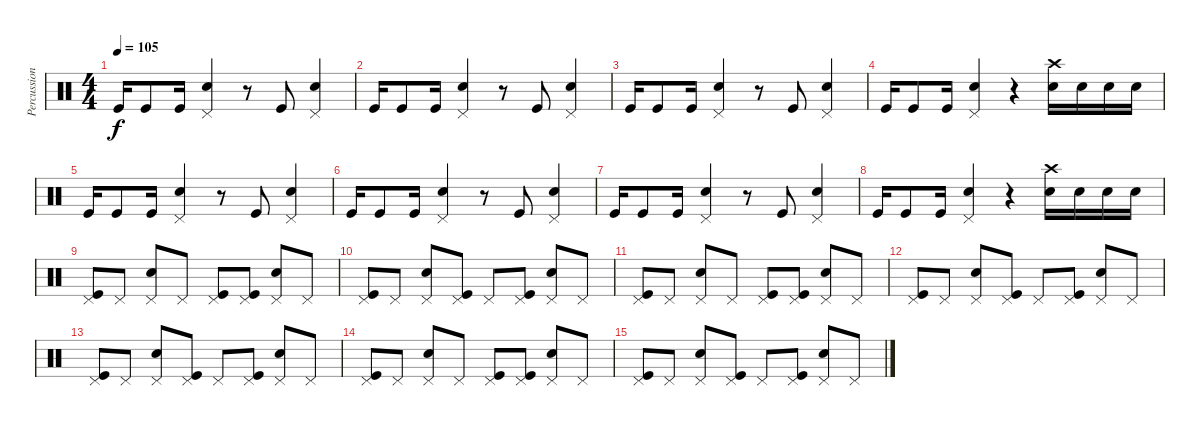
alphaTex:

\track ("Percussion" "Percussion") {instrument percussion bank 255}
\staff {score}
\articulation defaults
\ts (4 4)
\tempo 105
\clef neutral
\ks c "Kick (hit)".16{dy f} "Kick (hit)".8 "Kick (hit)".16
("Pedal Hi-Hat (hit)" "Snare (hit) 2").4 r.8 "Kick (hit)".8 ("Pedal Hi-Hat (hit)" "Snare (hit) 2").4 |
"Kick (hit)".16 "Kick (hit)".8 "Kick (hit)".16 ("Pedal Hi-Hat (hit)" "Snare (hit) 2").4 r.8 "Kick (hit)".8 ("Pedal Hi-Hat (hit)" "Snare (hit) 2").4 |
"Kick (hit)".16 "Kick (hit)".8 "Kick (hit)".16 ("Pedal Hi-Hat (hit)" "Snare (hit) 2").4 r.8 "Kick (hit)".8 ("Pedal Hi-Hat (hit)" "Snare (hit) 2").4 |
"Kick (hit)".16 "Kick (hit)".8 "Kick (hit)".16 ("Pedal Hi-Hat (hit)" "Snare (hit) 2").4 r.4 ("Crash high (hit)" "Snare (hit) 2").16 "Snare (hit) 2".16 "Snare (hit) 2".16 "Snare (hit) 2".16 |
"Kick (hit)".16 "Kick (hit)".8 "Kick (hit)".16 ("Pedal Hi-Hat (hit)" "Snare (hit) 2").4 r.8 "Kick (hit)".8 ("Pedal Hi-Hat (hit)" "Snare (hit) 2").4 |
"Kick (hit)".16 "Kick (hit)".8 "Kick (hit)".16 ("Pedal Hi-Hat (hit)" "Snare (hit) 2").4 r.8 "Kick (hit)".8 ("Pedal Hi-Hat (hit)" "Snare (hit) 2").4 |
"Kick (hit)".16 "Kick (hit)".8 "Kick (hit)".16 ("Pedal Hi-Hat (hit)" "Snare (hit) 2").4 r.8 "Kick (hit)".8 ("Pedal Hi-Hat (hit)" "Snare (hit) 2").4 |
"Kick (hit)".16 "Kick (hit)".8 "Kick (hit)".16 ("Pedal Hi-Hat (hit)" "Snare (hit) 2").4 r.4 ("Crash high (hit)" "Snare (hit) 2").16 "Snare (hit) 2".16 "Snare (hit) 2".16 "Snare (hit) 2".16 |
("Pedal Hi-Hat (hit)" "Kick (hit)").8 "Pedal Hi-Hat (hit)".8 ("Pedal Hi-Hat (hit)" "Snare (hit) 2").8 "Pedal Hi-Hat (hit)".8 ("Pedal Hi-Hat (hit)" "Kick (hit)").8 ("Pedal Hi-Hat (hit)" "Kick (hit)").8 ("Pedal Hi-Hat (hit)" "Snare (hit) 2").8 "Pedal Hi-Hat (hit)".8 |
("Pedal Hi-Hat (hit)" "Kick (hit)").8 "Pedal Hi-Hat (hit)".8 ("Pedal Hi-Hat (hit)" "Snare (hit) 2").8 ("Pedal Hi-Hat (hit)" "Kick (hit)").8 "Pedal Hi-Hat (hit)".8 ("Pedal Hi-Hat (hit)" "Kick (hit)").8 ("Pedal Hi-Hat (hit)" "Snare (hit) 2").8 "Pedal Hi-Hat (hit)".8 |
("Pedal Hi-Hat (hit)" "Kick (hit)").8 "Pedal Hi-Hat (hit)".8 ("Pedal Hi-Hat (hit)" "Snare (hit) 2").8 "Pedal Hi-Hat (hit)".8 ("Pedal Hi-Hat (hit)" "Kick (hit)").8 ("Pedal Hi-Hat (hit)" "Kick (hit)").8 ("Pedal Hi-Hat (hit)" "Snare (hit) 2").8 "Pedal Hi-Hat (hit)".8 |
("Pedal Hi-Hat (hit)" "Kick (hit)").8 "Pedal Hi-Hat (hit)".8 ("Pedal Hi-Hat (hit)" "Snare (hit) 2").8 ("Pedal Hi-Hat (hit)" "Kick (hit)").8 "Pedal Hi-Hat (hit)".8 ("Pedal Hi-Hat (hit)" "Kick (hit)").8 ("Pedal Hi-Hat (hit)" "Snare (hit) 2").8 "Pedal Hi-Hat (hit)".8 |
("Pedal Hi-Hat (hit)" "Kick (hit)").8 "Pedal Hi-Hat (hit)".8 ("Pedal Hi-Hat (hit)" "Snare (hit) 2").8 ("Pedal Hi-Hat (hit)" "Kick (hit)").8 "Pedal Hi-Hat (hit)".8 ("Pedal Hi-Hat (hit)" "Kick (hit)").8 ("Pedal Hi-Hat (hit)" "Snare (hit) 2").8 "Pedal Hi-Hat (hit)".8 |
("Pedal Hi-Hat (hit)" "Kick (hit)").8 "Pedal Hi-Hat (hit)".8 ("Pedal Hi-Hat (hit)" "Snare (hit) 2").8 "Pedal Hi-Hat (hit)".8 ("Pedal Hi-Hat (hit)" "Kick (hit)").8 ("Pedal Hi-Hat (hit)" "Kick (hit)").8 ("Pedal Hi-Hat (hit)" "Snare (hit) 2").8 "Pedal Hi-Hat (hit)".8 |
("Pedal Hi-Hat (hit)" "Kick (hit)").8 "Pedal Hi-Hat (hit)".8 ("Pedal Hi-Hat (hit)" "Snare (hit) 2").8 ("Pedal Hi-Hat (hit)" "Kick (hit)").8 "Pedal Hi-Hat (hit)".8 ("Pedal Hi-Hat (hit)" "Kick (hit)").8 ("Pedal Hi-Hat (hit)" "Snare (hit) 2").8 "Pedal Hi-Hat (hit)".8
